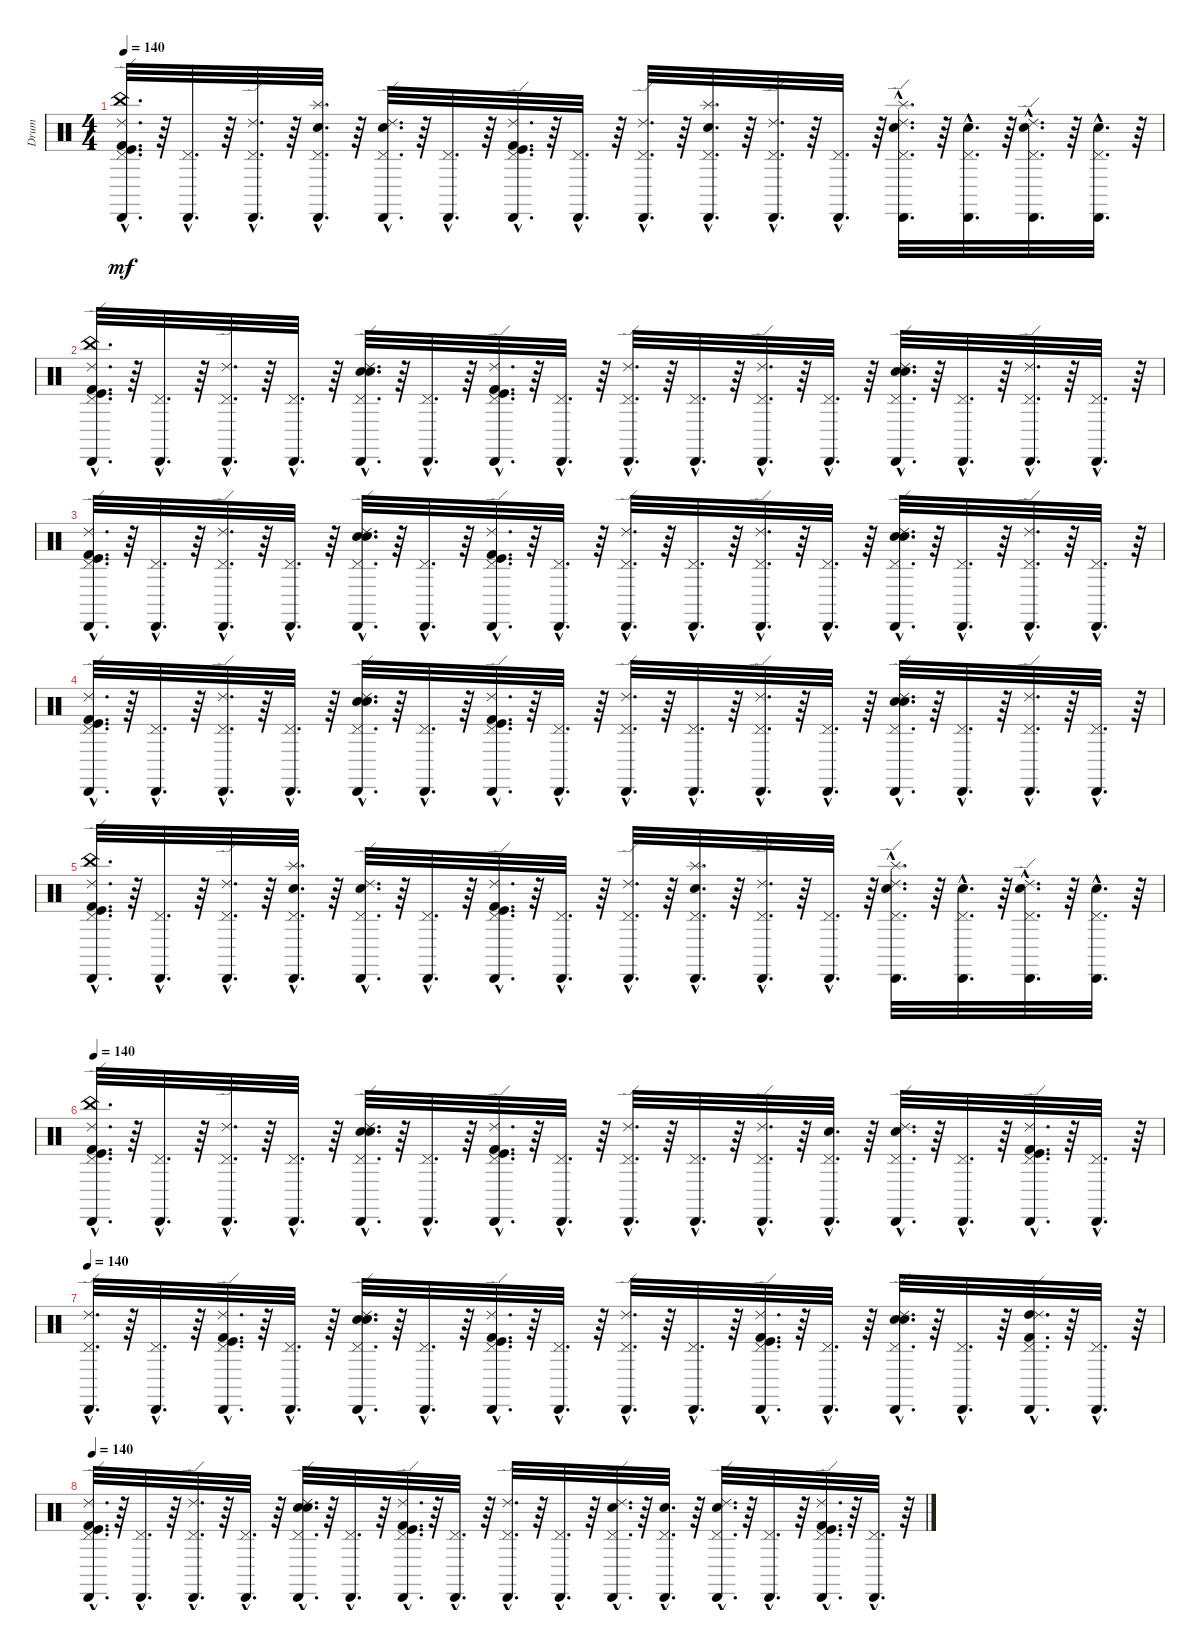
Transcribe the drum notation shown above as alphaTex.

\track ("Drum" "Drum") {instrument percussion}
\staff {score}
\articulation defaults
\ts (4 4)
\tempo 140
\clef neutral
\ks c
("Pedal Hi-Hat (hit)"{hac} "Kick (hit)"{hac} "Kick (hit) 2"{hac} "Ride (edge) 2"{hac} "Cabasa (hit)"{hac} "China (hit)"{hac}).32{d dy mf} r.64 ("Cabasa (hit)"{hac} "Pedal Hi-Hat (hit)"{hac}).32{d} r.64 ("Pedal Hi-Hat (hit)"{hac} "Cabasa (hit)"{hac} "Ride (edge) 2"{hac}).32{d} r.64 ("Cabasa (hit)"{hac} "Pedal Hi-Hat (hit)"{hac} "Snare (hit) 2"{hac} "Splash (hit)"{hac}).32{d} r.64 ("Pedal Hi-Hat (hit)"{hac} "Cabasa (hit)"{hac} "Ride (edge) 2"{hac} "Snare (hit) 2"{hac}).32{d} r.64 ("Pedal Hi-Hat (hit)"{hac} "Cabasa (hit)"{hac}).32{d} r.64 ("Pedal Hi-Hat (hit)"{hac} "Kick (hit) 2"{hac} "Kick (hit)"{hac} "Cabasa (hit)"{hac} "Ride (edge) 2"{hac}).32{d} r.64 ("Cabasa (hit)"{hac} "Pedal Hi-Hat (hit)"{hac}).32{d} r.64 ("Ride (edge) 2"{hac} "Pedal Hi-Hat (hit)"{hac} "Cabasa (hit)"{hac}).32{d} r.64 ("Cabasa (hit)"{hac} "Pedal Hi-Hat (hit)"{hac} "Snare (hit) 2"{hac} "Splash (hit)"{hac}).32{d} r.64 ("Ride (edge) 2"{hac} "Cabasa (hit)"{hac} "Pedal Hi-Hat (hit)"{hac}).32{d} r.64 ("Cabasa (hit)"{hac} "Pedal Hi-Hat (hit)"{hac}).32{d} r.64 ("Pedal Hi-Hat (hit)"{hac} "Cabasa (hit)"{hac} "Ride (edge) 2"{hac} "Snare (hit) 2"{hac} "Splash (hit)"{hac}).32{d} r.64 ("Cabasa (hit)"{hac} "Pedal Hi-Hat (hit)"{hac} "Snare (hit) 2"{hac}).32{d} r.64 ("Pedal Hi-Hat (hit)"{hac} "Cabasa (hit)"{hac} "Ride (edge) 2"{hac} "Snare (hit) 2"{hac}).32{d} r.64 ("Cabasa (hit)"{hac} "Pedal Hi-Hat (hit)"{hac} "Snare (hit) 2"{hac}).32{d} r.64 |
("Kick (hit) 2"{hac} "China (hit)"{hac} "Cabasa (hit)"{hac} "Ride (edge) 2"{hac} "Kick (hit)"{hac} "Pedal Hi-Hat (hit)"{hac}).32{d} r.64 ("Cabasa (hit)"{hac} "Pedal Hi-Hat (hit)"{hac}).32{d} r.64 ("Ride (edge) 2"{hac} "Cabasa (hit)"{hac} "Pedal Hi-Hat (hit)"{hac}).32{d} r.64 ("Cabasa (hit)"{hac} "Pedal Hi-Hat (hit)"{hac}).32{d} r.64 ("Snare (hit) 2"{hac} "Cabasa (hit)"{hac} "Ride (edge) 2"{hac} "Electric Snare (hit)"{hac} "Pedal Hi-Hat (hit)"{hac}).32{d} r.64 ("Cabasa (hit)"{hac} "Pedal Hi-Hat (hit)"{hac}).32{d} r.64 ("Ride (edge) 2"{hac} "Cabasa (hit)"{hac} "Kick (hit) 2"{hac} "Pedal Hi-Hat (hit)"{hac} "Kick (hit)"{hac}).32{d} r.64 ("Cabasa (hit)"{hac} "Pedal Hi-Hat (hit)"{hac}).32{d} r.64 ("Cabasa (hit)"{hac} "Pedal Hi-Hat (hit)"{hac} "Ride (edge) 2"{hac}).32{d} r.64 ("Cabasa (hit)"{hac} "Pedal Hi-Hat (hit)"{hac}).32{d} r.64 ("Cabasa (hit)"{hac} "Ride (edge) 2"{hac} "Pedal Hi-Hat (hit)"{hac}).32{d} r.64 ("Cabasa (hit)"{hac} "Pedal Hi-Hat (hit)"{hac}).32{d} r.64 ("Electric Snare (hit)"{hac} "Cabasa (hit)"{hac} "Snare (hit) 2"{hac} "Ride (edge) 2"{hac} "Pedal Hi-Hat (hit)"{hac}).32{d} r.64 ("Cabasa (hit)"{hac} "Pedal Hi-Hat (hit)"{hac}).32{d} r.64 ("Cabasa (hit)"{hac} "Ride (edge) 2"{hac} "Pedal Hi-Hat (hit)"{hac}).32{d} r.64 ("Cabasa (hit)"{hac} "Pedal Hi-Hat (hit)"{hac}).32{d} r.64 |
("Pedal Hi-Hat (hit)"{hac} "Cabasa (hit)"{hac} "Ride (edge) 2"{hac} "Kick (hit)"{hac} "Kick (hit) 2"{hac}).32{d} r.64 ("Pedal Hi-Hat (hit)"{hac} "Cabasa (hit)"{hac}).32{d} r.64 ("Pedal Hi-Hat (hit)"{hac} "Cabasa (hit)"{hac} "Ride (edge) 2"{hac}).32{d} r.64 ("Pedal Hi-Hat (hit)"{hac} "Cabasa (hit)"{hac}).32{d} r.64 ("Pedal Hi-Hat (hit)"{hac} "Cabasa (hit)"{hac} "Ride (edge) 2"{hac} "Electric Snare (hit)"{hac} "Snare (hit) 2"{hac}).32{d} r.64 ("Pedal Hi-Hat (hit)"{hac} "Cabasa (hit)"{hac}).32{d} r.64 ("Pedal Hi-Hat (hit)"{hac} "Cabasa (hit)"{hac} "Ride (edge) 2"{hac} "Kick (hit) 2"{hac} "Kick (hit)"{hac}).32{d} r.64 ("Pedal Hi-Hat (hit)"{hac} "Cabasa (hit)"{hac}).32{d} r.64 ("Pedal Hi-Hat (hit)"{hac} "Cabasa (hit)"{hac} "Ride (edge) 2"{hac}).32{d} r.64 ("Pedal Hi-Hat (hit)"{hac} "Cabasa (hit)"{hac}).32{d} r.64 ("Pedal Hi-Hat (hit)"{hac} "Cabasa (hit)"{hac} "Ride (edge) 2"{hac}).32{d} r.64 ("Pedal Hi-Hat (hit)"{hac} "Cabasa (hit)"{hac}).32{d} r.64 ("Pedal Hi-Hat (hit)"{hac} "Cabasa (hit)"{hac} "Ride (edge) 2"{hac} "Snare (hit) 2"{hac} "Electric Snare (hit)"{hac}).32{d} r.64 ("Pedal Hi-Hat (hit)"{hac} "Cabasa (hit)"{hac}).32{d} r.64 ("Pedal Hi-Hat (hit)"{hac} "Cabasa (hit)"{hac} "Ride (edge) 2"{hac}).32{d} r.64 ("Pedal Hi-Hat (hit)"{hac} "Cabasa (hit)"{hac}).32{d} r.64 |
("Kick (hit) 2"{hac} "Kick (hit)"{hac} "Ride (edge) 2"{hac} "Cabasa (hit)"{hac} "Pedal Hi-Hat (hit)"{hac}).32{d} r.64 ("Cabasa (hit)"{hac} "Pedal Hi-Hat (hit)"{hac}).32{d} r.64 ("Ride (edge) 2"{hac} "Cabasa (hit)"{hac} "Pedal Hi-Hat (hit)"{hac}).32{d} r.64 ("Cabasa (hit)"{hac} "Pedal Hi-Hat (hit)"{hac}).32{d} r.64 ("Snare (hit) 2"{hac} "Electric Snare (hit)"{hac} "Ride (edge) 2"{hac} "Cabasa (hit)"{hac} "Pedal Hi-Hat (hit)"{hac}).32{d} r.64 ("Cabasa (hit)"{hac} "Pedal Hi-Hat (hit)"{hac}).32{d} r.64 ("Kick (hit)"{hac} "Kick (hit) 2"{hac} "Ride (edge) 2"{hac} "Cabasa (hit)"{hac} "Pedal Hi-Hat (hit)"{hac}).32{d} r.64 ("Cabasa (hit)"{hac} "Pedal Hi-Hat (hit)"{hac}).32{d} r.64 ("Ride (edge) 2"{hac} "Cabasa (hit)"{hac} "Pedal Hi-Hat (hit)"{hac}).32{d} r.64 ("Cabasa (hit)"{hac} "Pedal Hi-Hat (hit)"{hac}).32{d} r.64 ("Ride (edge) 2"{hac} "Cabasa (hit)"{hac} "Pedal Hi-Hat (hit)"{hac}).32{d} r.64 ("Cabasa (hit)"{hac} "Pedal Hi-Hat (hit)"{hac}).32{d} r.64 ("Electric Snare (hit)"{hac} "Snare (hit) 2"{hac} "Ride (edge) 2"{hac} "Cabasa (hit)"{hac} "Pedal Hi-Hat (hit)"{hac}).32{d} r.64 ("Cabasa (hit)"{hac} "Pedal Hi-Hat (hit)"{hac}).32{d} r.64 ("Ride (edge) 2"{hac} "Cabasa (hit)"{hac} "Pedal Hi-Hat (hit)"{hac}).32{d} r.64 ("Cabasa (hit)"{hac} "Pedal Hi-Hat (hit)"{hac}).32{d} r.64 |
("Pedal Hi-Hat (hit)"{hac} "Kick (hit)"{hac} "Kick (hit) 2"{hac} "Ride (edge) 2"{hac} "Cabasa (hit)"{hac} "China (hit)"{hac}).32{d} r.64 ("Cabasa (hit)"{hac} "Pedal Hi-Hat (hit)"{hac}).32{d} r.64 ("Pedal Hi-Hat (hit)"{hac} "Cabasa (hit)"{hac} "Ride (edge) 2"{hac}).32{d} r.64 ("Cabasa (hit)"{hac} "Pedal Hi-Hat (hit)"{hac} "Snare (hit) 2"{hac} "Splash (hit)"{hac}).32{d} r.64 ("Pedal Hi-Hat (hit)"{hac} "Cabasa (hit)"{hac} "Ride (edge) 2"{hac} "Snare (hit) 2"{hac}).32{d} r.64 ("Pedal Hi-Hat (hit)"{hac} "Cabasa (hit)"{hac}).32{d} r.64 ("Pedal Hi-Hat (hit)"{hac} "Kick (hit) 2"{hac} "Kick (hit)"{hac} "Cabasa (hit)"{hac} "Ride (edge) 2"{hac}).32{d} r.64 ("Cabasa (hit)"{hac} "Pedal Hi-Hat (hit)"{hac}).32{d} r.64 ("Ride (edge) 2"{hac} "Pedal Hi-Hat (hit)"{hac} "Cabasa (hit)"{hac}).32{d} r.64 ("Cabasa (hit)"{hac} "Pedal Hi-Hat (hit)"{hac} "Snare (hit) 2"{hac} "Splash (hit)"{hac}).32{d} r.64 ("Ride (edge) 2"{hac} "Cabasa (hit)"{hac} "Pedal Hi-Hat (hit)"{hac}).32{d} r.64 ("Cabasa (hit)"{hac} "Pedal Hi-Hat (hit)"{hac}).32{d} r.64 ("Pedal Hi-Hat (hit)"{hac} "Cabasa (hit)"{hac} "Ride (edge) 2"{hac} "Snare (hit) 2"{hac} "Splash (hit)"{hac}).32{d} r.64 ("Cabasa (hit)"{hac} "Pedal Hi-Hat (hit)"{hac} "Snare (hit) 2"{hac}).32{d} r.64 ("Pedal Hi-Hat (hit)"{hac} "Cabasa (hit)"{hac} "Ride (edge) 2"{hac} "Snare (hit) 2"{hac}).32{d} r.64 ("Cabasa (hit)"{hac} "Pedal Hi-Hat (hit)"{hac} "Snare (hit) 2"{hac}).32{d} r.64 |
\tempo 140
("Pedal Hi-Hat (hit)"{hac} "Cabasa (hit)"{hac} "Ride (edge) 2"{hac} "Kick (hit)"{hac} "Kick (hit) 2"{hac} "China (hit)"{hac}).32{d} r.64 ("Pedal Hi-Hat (hit)"{hac} "Cabasa (hit)"{hac}).32{d} r.64 ("Pedal Hi-Hat (hit)"{hac} "Cabasa (hit)"{hac} "Ride (edge) 2"{hac}).32{d} r.64 ("Pedal Hi-Hat (hit)"{hac} "Cabasa (hit)"{hac}).32{d} r.64 ("Pedal Hi-Hat (hit)"{hac} "Cabasa (hit)"{hac} "Ride (edge) 2"{hac} "Electric Snare (hit)"{hac} "Snare (hit) 2"{hac}).32{d} r.64 ("Pedal Hi-Hat (hit)"{hac} "Cabasa (hit)"{hac}).32{d} r.64 ("Pedal Hi-Hat (hit)"{hac} "Cabasa (hit)"{hac} "Ride (edge) 2"{hac} "Kick (hit) 2"{hac} "Kick (hit)"{hac}).32{d} r.64 ("Pedal Hi-Hat (hit)"{hac} "Cabasa (hit)"{hac}).32{d} r.64 ("Pedal Hi-Hat (hit)"{hac} "Cabasa (hit)"{hac} "Ride (edge) 2"{hac}).32{d} r.64 ("Pedal Hi-Hat (hit)"{hac} "Cabasa (hit)"{hac}).32{d} r.64 ("Pedal Hi-Hat (hit)"{hac} "Cabasa (hit)"{hac} "Ride (edge) 2"{hac}).32{d} r.64 ("Snare (hit) 2"{hac} "Pedal Hi-Hat (hit)"{hac} "Cabasa (hit)"{hac}).32{d} r.64 ("Snare (hit) 2"{hac} "Pedal Hi-Hat (hit)"{hac} "Cabasa (hit)"{hac} "Ride (edge) 2"{hac}).32{d} r.64 ("Pedal Hi-Hat (hit)"{hac} "Cabasa (hit)"{hac}).32{d} r.64 ("Kick (hit) 2"{hac} "Kick (hit)"{hac} "Pedal Hi-Hat (hit)"{hac} "Cabasa (hit)"{hac} "Ride (edge) 2"{hac}).32{d} r.64 ("Pedal Hi-Hat (hit)"{hac} "Cabasa (hit)"{hac}).32{d} r.64 |
\tempo 140
("Ride (edge) 2"{hac} "Cabasa (hit)"{hac} "Pedal Hi-Hat (hit)"{hac}).32{d} r.64 ("Cabasa (hit)"{hac} "Pedal Hi-Hat (hit)"{hac}).32{d} r.64 ("Kick (hit) 2"{hac} "Kick (hit)"{hac} "Ride (edge) 2"{hac} "Cabasa (hit)"{hac} "Pedal Hi-Hat (hit)"{hac}).32{d} r.64 ("Cabasa (hit)"{hac} "Pedal Hi-Hat (hit)"{hac}).32{d} r.64 ("Snare (hit) 2"{hac} "Electric Snare (hit)"{hac} "Ride (edge) 2"{hac} "Cabasa (hit)"{hac} "Pedal Hi-Hat (hit)"{hac}).32{d} r.64 ("Cabasa (hit)"{hac} "Pedal Hi-Hat (hit)"{hac}).32{d} r.64 ("Kick (hit)"{hac} "Kick (hit) 2"{hac} "Ride (edge) 2"{hac} "Cabasa (hit)"{hac} "Pedal Hi-Hat (hit)"{hac}).32{d} r.64 ("Cabasa (hit)"{hac} "Pedal Hi-Hat (hit)"{hac}).32{d} r.64 ("Ride (edge) 2"{hac} "Cabasa (hit)"{hac} "Pedal Hi-Hat (hit)"{hac}).32{d} r.64 ("Cabasa (hit)"{hac} "Pedal Hi-Hat (hit)"{hac}).32{d} r.64 ("Kick (hit) 2"{hac} "Kick (hit)"{hac} "Ride (edge) 2"{hac} "Cabasa (hit)"{hac} "Pedal Hi-Hat (hit)"{hac}).32{d} r.64 ("Cabasa (hit)"{hac} "Pedal Hi-Hat (hit)"{hac}).32{d} r.64 ("Electric Snare (hit)"{hac} "Snare (hit) 2"{hac} "Ride (edge) 2"{hac} "Cabasa (hit)"{hac} "Pedal Hi-Hat (hit)"{hac}).32{d} r.64 ("Cabasa (hit)"{hac} "Pedal Hi-Hat (hit)"{hac}).32{d} r.64 ("Kick (hit) 2"{hac} "High Tom (hit)"{hac} "Ride (edge) 2"{hac} "Cabasa (hit)"{hac} "Pedal Hi-Hat (hit)"{hac}).32{d} r.64 ("Cabasa (hit)"{hac} "Pedal Hi-Hat (hit)"{hac}).32{d} r.64 |
\tempo 140
("Ride (edge) 2"{hac} "Pedal Hi-Hat (hit)"{hac} "Cabasa (hit)"{hac} "Kick (hit) 2"{hac} "Kick (hit)"{hac}).32{d} r.64 ("Cabasa (hit)"{hac} "Pedal Hi-Hat (hit)"{hac}).32{d} r.64 ("Pedal Hi-Hat (hit)"{hac} "Cabasa (hit)"{hac} "Ride (edge) 2"{hac}).32{d} r.64 ("Cabasa (hit)"{hac} "Pedal Hi-Hat (hit)"{hac}).32{d} r.64 ("Pedal Hi-Hat (hit)"{hac} "Electric Snare (hit)"{hac} "Cabasa (hit)"{hac} "Snare (hit) 2"{hac} "Ride (edge) 2"{hac}).32{d} r.64 ("Cabasa (hit)"{hac} "Pedal Hi-Hat (hit)"{hac}).32{d} r.64 ("Ride (edge) 2"{hac} "Kick (hit) 2"{hac} "Cabasa (hit)"{hac} "Kick (hit)"{hac} "Pedal Hi-Hat (hit)"{hac}).32{d} r.64 ("Cabasa (hit)"{hac} "Pedal Hi-Hat (hit)"{hac}).32{d} r.64 ("Pedal Hi-Hat (hit)"{hac} "Cabasa (hit)"{hac} "Ride (edge) 2"{hac}).32{d} r.64 ("Pedal Hi-Hat (hit)"{hac} "Cabasa (hit)"{hac}).32{d} r.64 ("Snare (hit) 2"{hac} "Ride (edge) 2"{hac} "Pedal Hi-Hat (hit)"{hac} "Cabasa (hit)"{hac}).32{d} r.64 ("Snare (hit) 2"{hac} "Pedal Hi-Hat (hit)"{hac} "Cabasa (hit)"{hac}).32{d} r.64 ("Snare (hit) 2"{hac} "Cabasa (hit)"{hac} "Pedal Hi-Hat (hit)"{hac} "Ride (edge) 2"{hac}).32{d} r.64 ("Pedal Hi-Hat (hit)"{hac} "Cabasa (hit)"{hac}).32{d} r.64 ("Kick (hit) 2"{hac} "Kick (hit)"{hac} "Pedal Hi-Hat (hit)"{hac} "Cabasa (hit)"{hac} "Ride (edge) 2"{hac}).32{d} r.64 ("Pedal Hi-Hat (hit)"{hac} "Cabasa (hit)"{hac}).32{d} r.64
